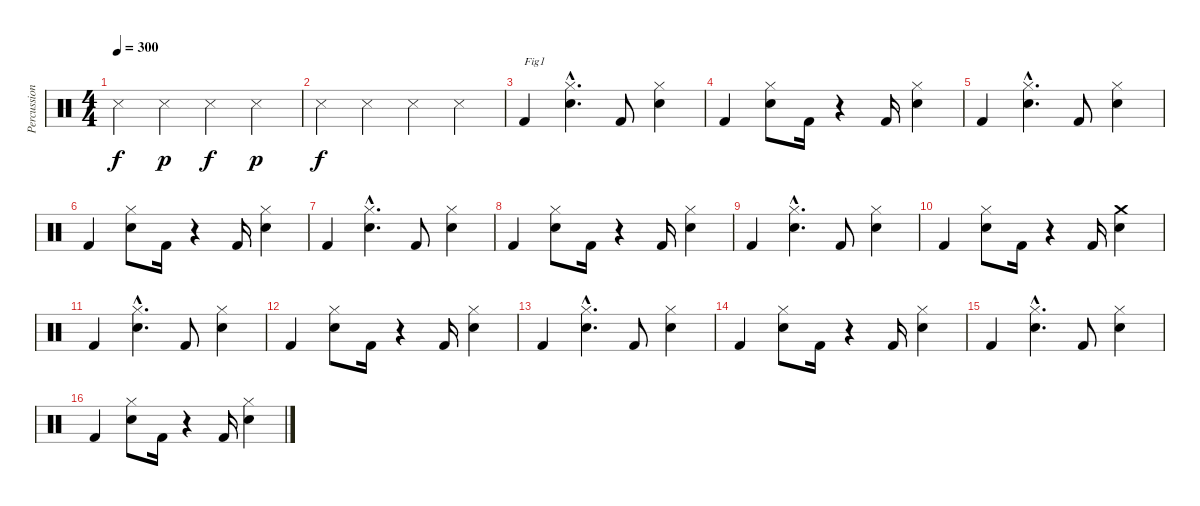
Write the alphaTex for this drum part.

\track ("Percussions" "Percussion") {instrument percussion}
\staff {score}
\articulation defaults
\ts (4 4)
\tempo 300
\clef neutral
\ks c "Metronome (hit)".4{dy f} "Metronome (hit)".4{dy p} "Metronome (hit)".4{dy f} "Metronome (hit)".4{dy p}
|
"Metronome (hit)".4{dy f} "Metronome (hit)".4 "Metronome (hit)".4 "Metronome (hit)".4 |
"Kick (hit) 2".4{txt "Fig1"} ("Electric Snare (hit)"{hac} "Hi-Hat (closed)"{hac}).4{d} "Kick (hit) 2".8 ("Electric Snare (hit)" "Hi-Hat (closed)").4 |
"Kick (hit) 2".4 ("Electric Snare (hit)" "Hi-Hat (closed)").8 "Kick (hit) 2".16 r.4 "Kick (hit) 2".16 ("Electric Snare (hit)" "Hi-Hat (closed)").4 |
"Kick (hit) 2".4 ("Electric Snare (hit)"{hac} "Hi-Hat (closed)"{hac}).4{d} "Kick (hit) 2".8 ("Electric Snare (hit)" "Hi-Hat (closed)").4 |
"Kick (hit) 2".4 ("Electric Snare (hit)" "Hi-Hat (closed)").8 "Kick (hit) 2".16 r.4 "Kick (hit) 2".16 ("Electric Snare (hit)" "Hi-Hat (closed)").4 |
"Kick (hit) 2".4 ("Electric Snare (hit)"{hac} "Hi-Hat (closed)"{hac}).4{d} "Kick (hit) 2".8 ("Electric Snare (hit)" "Hi-Hat (closed)").4 |
"Kick (hit) 2".4 ("Electric Snare (hit)" "Hi-Hat (closed)").8 "Kick (hit) 2".16 r.4 "Kick (hit) 2".16 ("Electric Snare (hit)" "Hi-Hat (closed)").4 |
"Kick (hit) 2".4 ("Electric Snare (hit)"{hac} "Hi-Hat (closed)"{hac}).4{d} "Kick (hit) 2".8 ("Electric Snare (hit)" "Hi-Hat (closed)").4 |
"Kick (hit) 2".4 ("Electric Snare (hit)" "Hi-Hat (closed)").8 "Kick (hit) 2".16 r.4 "Kick (hit) 2".16 ("Electric Snare (hit)" "Crash medium (hit)").4 |
"Kick (hit) 2".4 ("Electric Snare (hit)"{hac} "Hi-Hat (closed)"{hac}).4{d} "Kick (hit) 2".8 ("Electric Snare (hit)" "Hi-Hat (closed)").4 |
"Kick (hit) 2".4 ("Electric Snare (hit)" "Hi-Hat (closed)").8 "Kick (hit) 2".16 r.4 "Kick (hit) 2".16 ("Electric Snare (hit)" "Hi-Hat (closed)").4 |
"Kick (hit) 2".4 ("Electric Snare (hit)"{hac} "Hi-Hat (closed)"{hac}).4{d} "Kick (hit) 2".8 ("Electric Snare (hit)" "Hi-Hat (closed)").4 |
"Kick (hit) 2".4 ("Electric Snare (hit)" "Hi-Hat (closed)").8 "Kick (hit) 2".16 r.4 "Kick (hit) 2".16 ("Electric Snare (hit)" "Hi-Hat (closed)").4 |
"Kick (hit) 2".4 ("Electric Snare (hit)"{hac} "Hi-Hat (closed)"{hac}).4{d} "Kick (hit) 2".8 ("Electric Snare (hit)" "Hi-Hat (closed)").4 |
"Kick (hit) 2".4 ("Electric Snare (hit)" "Hi-Hat (closed)").8 "Kick (hit) 2".16 r.4 "Kick (hit) 2".16 ("Electric Snare (hit)" "Hi-Hat (closed)").4
